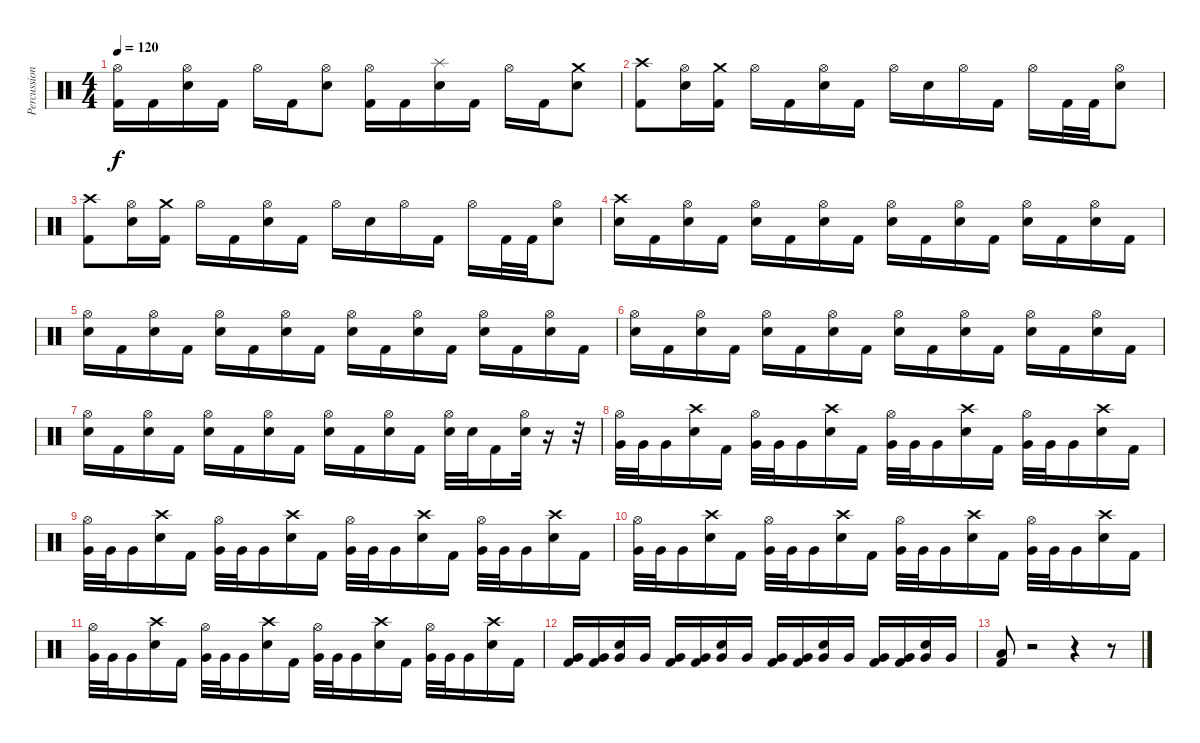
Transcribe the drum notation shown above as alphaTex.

\track ("Percussions" "Percussion") {instrument percussion}
\staff {score}
\articulation defaults
\ts (4 4)
\tempo 120
\clef neutral
\ks c
("Kick (hit) 2" "Hi-Hat (open)").16{dy f} "Kick (hit) 2".16 ("Electric Snare (hit)" "Hi-Hat (open)").16 "Kick (hit) 2".16 "Hi-Hat (open)".16 "Kick (hit) 2".16 ("Electric Snare (hit)" "Hi-Hat (open)").8 ("Kick (hit) 2" "Hi-Hat (open)").16 "Kick (hit) 2".16 ("Electric Snare (hit)" "Splash (hit)").16 "Kick (hit) 2".16 "Hi-Hat (open)".16 "Kick (hit) 2".16 ("Electric Snare (hit)" "Crash medium (hit)").8 |
("Kick (hit) 2" "Crash high (hit)").8 ("Electric Snare (hit)" "Hi-Hat (open)").16 ("Kick (hit) 2" "Crash medium (hit)").16 "Hi-Hat (open)".16 "Kick (hit) 2".16 ("Electric Snare (hit)" "Hi-Hat (open)").16 "Kick (hit) 2".16 "Hi-Hat (open)".16 "Electric Snare (hit)".16 "Hi-Hat (open)".16 "Kick (hit) 2".16 "Hi-Hat (open)".16 "Kick (hit) 2".32 "Kick (hit) 2".32 ("Electric Snare (hit)" "Hi-Hat (open)").8 |
("Kick (hit) 2" "Crash high (hit)").8 ("Electric Snare (hit)" "Hi-Hat (open)").16 ("Kick (hit) 2" "Crash medium (hit)").16 "Hi-Hat (open)".16 "Kick (hit) 2".16 ("Electric Snare (hit)" "Hi-Hat (open)").16 "Kick (hit) 2".16 "Hi-Hat (open)".16 "Electric Snare (hit)".16 "Hi-Hat (open)".16 "Kick (hit) 2".16 "Hi-Hat (open)".16 "Kick (hit) 2".32 "Kick (hit) 2".32 ("Electric Snare (hit)" "Hi-Hat (open)").8 |
("Electric Snare (hit)" "Crash high (hit)").16 "Kick (hit) 2".16 ("Hi-Hat (open)" "Electric Snare (hit)").16 "Kick (hit) 2".16 ("Hi-Hat (open)" "Electric Snare (hit)").16 "Kick (hit) 2".16 ("Hi-Hat (open)" "Electric Snare (hit)").16 "Kick (hit) 2".16 ("Electric Snare (hit)" "Hi-Hat (open)").16 "Kick (hit) 2".16 ("Hi-Hat (open)" "Electric Snare (hit)").16 "Kick (hit) 2".16 ("Hi-Hat (open)" "Electric Snare (hit)").16 "Kick (hit) 2".16 ("Hi-Hat (open)" "Electric Snare (hit)").16 "Kick (hit) 2".16 |
("Electric Snare (hit)" "Hi-Hat (open)").16 "Kick (hit) 2".16 ("Hi-Hat (open)" "Electric Snare (hit)").16 "Kick (hit) 2".16 ("Hi-Hat (open)" "Electric Snare (hit)").16 "Kick (hit) 2".16 ("Hi-Hat (open)" "Electric Snare (hit)").16 "Kick (hit) 2".16 ("Electric Snare (hit)" "Hi-Hat (open)").16 "Kick (hit) 2".16 ("Hi-Hat (open)" "Electric Snare (hit)").16 "Kick (hit) 2".16 ("Hi-Hat (open)" "Electric Snare (hit)").16 "Kick (hit) 2".16 ("Hi-Hat (open)" "Electric Snare (hit)").16 "Kick (hit) 2".16 |
("Electric Snare (hit)" "Hi-Hat (open)").16 "Kick (hit) 2".16 ("Hi-Hat (open)" "Electric Snare (hit)").16 "Kick (hit) 2".16 ("Hi-Hat (open)" "Electric Snare (hit)").16 "Kick (hit) 2".16 ("Hi-Hat (open)" "Electric Snare (hit)").16 "Kick (hit) 2".16 ("Electric Snare (hit)" "Hi-Hat (open)").16 "Kick (hit) 2".16 ("Hi-Hat (open)" "Electric Snare (hit)").16 "Kick (hit) 2".16 ("Hi-Hat (open)" "Electric Snare (hit)").16 "Kick (hit) 2".16 ("Hi-Hat (open)" "Electric Snare (hit)").16 "Kick (hit) 2".16 |
("Electric Snare (hit)" "Hi-Hat (open)").16 "Kick (hit) 2".16 ("Hi-Hat (open)" "Electric Snare (hit)").16 "Kick (hit) 2".16 ("Hi-Hat (open)" "Electric Snare (hit)").16 "Kick (hit) 2".16 ("Hi-Hat (open)" "Electric Snare (hit)").16 "Kick (hit) 2".16 ("Electric Snare (hit)" "Hi-Hat (open)").16 "Kick (hit) 2".16 ("Hi-Hat (open)" "Electric Snare (hit)").16 "Kick (hit) 2".16 ("Hi-Hat (open)" "Electric Snare (hit)").32 "Electric Snare (hit)".32 "Kick (hit) 2".16 ("Hi-Hat (open)" "Electric Snare (hit)").32 r.16 r.32 |
("Very Low Tom (hit)" "Hi-Hat (open)").32 "Very Low Tom (hit)".32 "Very Low Tom (hit)".16 ("Electric Snare (hit)" "Crash high (hit)").16 "Kick (hit) 2".16 ("Hi-Hat (open)" "Very Low Tom (hit)").32 "Very Low Tom (hit)".32 "Very Low Tom (hit)".16 ("Electric Snare (hit)" "Crash high (hit)").16 "Kick (hit) 2".16 ("Hi-Hat (open)" "Very Low Tom (hit)").32 "Very Low Tom (hit)".32 "Very Low Tom (hit)".16 ("Electric Snare (hit)" "Crash high (hit)").16 "Kick (hit) 2".16 ("Hi-Hat (open)" "Very Low Tom (hit)").32 "Very Low Tom (hit)".32 "Very Low Tom (hit)".16 ("Electric Snare (hit)" "Crash high (hit)").16 "Kick (hit) 2".16 |
("Very Low Tom (hit)" "Hi-Hat (open)").32 "Very Low Tom (hit)".32 "Very Low Tom (hit)".16 ("Electric Snare (hit)" "Crash high (hit)").16 "Kick (hit) 2".16 ("Hi-Hat (open)" "Very Low Tom (hit)").32 "Very Low Tom (hit)".32 "Very Low Tom (hit)".16 ("Electric Snare (hit)" "Crash high (hit)").16 "Kick (hit) 2".16 ("Hi-Hat (open)" "Very Low Tom (hit)").32 "Very Low Tom (hit)".32 "Very Low Tom (hit)".16 ("Electric Snare (hit)" "Crash high (hit)").16 "Kick (hit) 2".16 ("Hi-Hat (open)" "Very Low Tom (hit)").32 "Very Low Tom (hit)".32 "Very Low Tom (hit)".16 ("Electric Snare (hit)" "Crash high (hit)").16 "Kick (hit) 2".16 |
("Very Low Tom (hit)" "Hi-Hat (open)").32 "Very Low Tom (hit)".32 "Very Low Tom (hit)".16 ("Electric Snare (hit)" "Crash high (hit)").16 "Kick (hit) 2".16 ("Hi-Hat (open)" "Very Low Tom (hit)").32 "Very Low Tom (hit)".32 "Very Low Tom (hit)".16 ("Electric Snare (hit)" "Crash high (hit)").16 "Kick (hit) 2".16 ("Hi-Hat (open)" "Very Low Tom (hit)").32 "Very Low Tom (hit)".32 "Very Low Tom (hit)".16 ("Electric Snare (hit)" "Crash high (hit)").16 "Kick (hit) 2".16 ("Hi-Hat (open)" "Very Low Tom (hit)").32 "Very Low Tom (hit)".32 "Very Low Tom (hit)".16 ("Electric Snare (hit)" "Crash high (hit)").16 "Kick (hit) 2".16 |
("Very Low Tom (hit)" "Hi-Hat (open)").32 "Very Low Tom (hit)".32 "Very Low Tom (hit)".16 ("Electric Snare (hit)" "Crash high (hit)").16 "Kick (hit) 2".16 ("Hi-Hat (open)" "Very Low Tom (hit)").32 "Very Low Tom (hit)".32 "Very Low Tom (hit)".16 ("Electric Snare (hit)" "Crash high (hit)").16 "Kick (hit) 2".16 ("Hi-Hat (open)" "Very Low Tom (hit)").32 "Very Low Tom (hit)".32 "Very Low Tom (hit)".16 ("Electric Snare (hit)" "Crash high (hit)").16 "Kick (hit) 2".16 ("Hi-Hat (open)" "Very Low Tom (hit)").32 "Very Low Tom (hit)".32 "Very Low Tom (hit)".16 ("Electric Snare (hit)" "Crash high (hit)").16 "Kick (hit) 2".16 |
("Very Low Tom (hit)" "Kick (hit) 2").16 ("Very Low Tom (hit)" "Kick (hit) 2").16 ("Electric Snare (hit)" "Very Low Tom (hit)").16 "Very Low Tom (hit)".16 ("Very Low Tom (hit)" "Kick (hit) 2").16 ("Very Low Tom (hit)" "Kick (hit) 2").16 ("Electric Snare (hit)" "Very Low Tom (hit)").16 "Very Low Tom (hit)".16 ("Very Low Tom (hit)" "Kick (hit) 2").16 ("Very Low Tom (hit)" "Kick (hit) 2").16 ("Electric Snare (hit)" "Very Low Tom (hit)").16 "Very Low Tom (hit)".16 ("Very Low Tom (hit)" "Kick (hit) 2").16 ("Very Low Tom (hit)" "Kick (hit) 2").16 ("Electric Snare (hit)" "Very Low Tom (hit)").16 "Very Low Tom (hit)".16 |
("Kick (hit) 2" "Low Floor Tom (hit)").8 r.2 r.4 r.8
